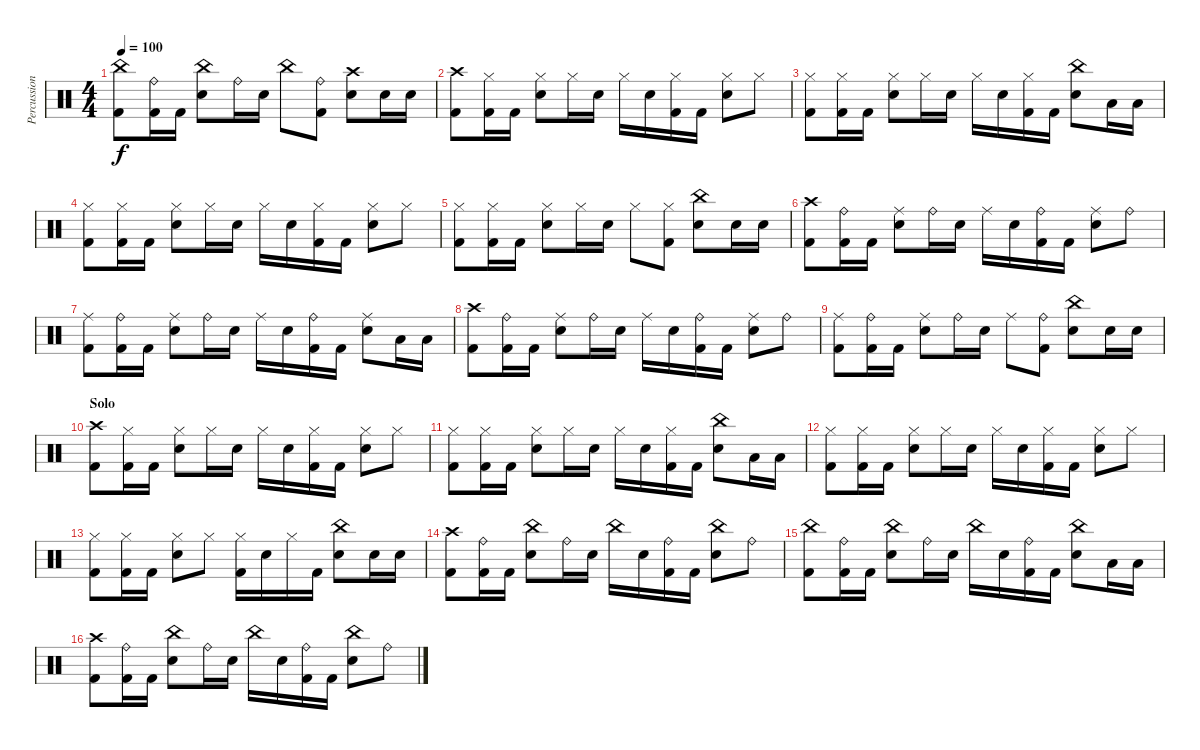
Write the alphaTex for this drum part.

\track ("Percussion" "Percussion") {instrument percussion}
\staff {score}
\articulation defaults
\ts (4 4)
\tempo 100
\clef neutral
\ks c
("China (hit)" "Kick (hit) 2").8{dy f} ("Ride (bell)" "Kick (hit) 2").16 "Kick (hit) 2".16 ("China (hit)" "Snare (hit) 2").8 "Ride (bell)".16 "Snare (hit) 2".16 "China (hit)".8 ("Ride (bell)" "Kick (hit) 2").8 ("Crash high (hit)" "Snare (hit) 2").8 "Snare (hit) 2".16 "Snare (hit) 2".16 |
("Crash high (hit)" "Kick (hit) 2").8 ("Hi-Hat (closed)" "Kick (hit) 2").16 "Kick (hit) 2".16 ("Hi-Hat (closed)" "Snare (hit) 2").8 "Hi-Hat (closed)".16 "Snare (hit) 2".16 "Hi-Hat (closed)".16 "Snare (hit) 2".16 ("Hi-Hat (closed)" "Kick (hit) 2").16 "Kick (hit) 2".16 ("Hi-Hat (closed)" "Snare (hit) 2").8 "Hi-Hat (closed)".8 |
("Hi-Hat (closed)" "Kick (hit) 2").8 ("Hi-Hat (closed)" "Kick (hit) 2").16 "Kick (hit) 2".16 ("Hi-Hat (closed)" "Snare (hit) 2").8 "Hi-Hat (closed)".16 "Snare (hit) 2".16 "Hi-Hat (closed)".16 "Snare (hit) 2".16 ("Hi-Hat (closed)" "Kick (hit) 2").16 "Kick (hit) 2".16 ("China (hit)" "Snare (hit) 2").8 "Low Floor Tom (hit)".16 "Low Floor Tom (hit)".16 |
("Hi-Hat (closed)" "Kick (hit) 2").8 ("Hi-Hat (closed)" "Kick (hit) 2").16 "Kick (hit) 2".16 ("Hi-Hat (closed)" "Snare (hit) 2").8 "Hi-Hat (closed)".16 "Snare (hit) 2".16 "Hi-Hat (closed)".16 "Snare (hit) 2".16 ("Hi-Hat (closed)" "Kick (hit) 2").16 "Kick (hit) 2".16 ("Hi-Hat (closed)" "Snare (hit) 2").8 "Hi-Hat (closed)".8 |
("Hi-Hat (closed)" "Kick (hit) 2").8 ("Hi-Hat (closed)" "Kick (hit) 2").16 "Kick (hit) 2".16 ("Hi-Hat (closed)" "Snare (hit) 2").8 "Hi-Hat (closed)".16 "Snare (hit) 2".16 "Hi-Hat (closed)".8 ("Hi-Hat (closed)" "Kick (hit) 2").8 ("China (hit)" "Snare (hit) 2").8 "Snare (hit) 2".16 "Snare (hit) 2".16 |
("Crash high (hit)" "Kick (hit) 2").8 ("Ride (bell)" "Kick (hit) 2").16 "Kick (hit) 2".16 ("Ride (middle)" "Snare (hit) 2").8 "Ride (bell)".16 "Snare (hit) 2".16 "Ride (middle)".16 "Snare (hit) 2".16 ("Ride (bell)" "Kick (hit) 2").16 "Kick (hit) 2".16 ("Ride (middle)" "Snare (hit) 2").8 "Ride (bell)".8 |
("Ride (middle)" "Kick (hit) 2").8 ("Ride (bell)" "Kick (hit) 2").16 "Kick (hit) 2".16 ("Ride (middle)" "Snare (hit) 2").8 "Ride (bell)".16 "Snare (hit) 2".16 "Ride (middle)".16 "Snare (hit) 2".16 ("Ride (bell)" "Kick (hit) 2").16 "Kick (hit) 2".16 ("Ride (middle)" "Snare (hit) 2").8 "Low Floor Tom (hit)".16 "Low Floor Tom (hit)".16 |
("Crash high (hit)" "Kick (hit) 2").8 ("Ride (bell)" "Kick (hit) 2").16 "Kick (hit) 2".16 ("Ride (middle)" "Snare (hit) 2").8 "Ride (bell)".16 "Snare (hit) 2".16 "Ride (middle)".16 "Snare (hit) 2".16 ("Ride (bell)" "Kick (hit) 2").16 "Kick (hit) 2".16 ("Ride (middle)" "Snare (hit) 2").8 "Ride (bell)".8 |
("Ride (middle)" "Kick (hit) 2").8 ("Ride (bell)" "Kick (hit) 2").16 "Kick (hit) 2".16 ("Ride (middle)" "Snare (hit) 2").8 "Ride (bell)".16 "Snare (hit) 2".16 "Ride (middle)".8 ("Ride (bell)" "Kick (hit) 2").8 ("China (hit)" "Snare (hit) 2").8 "Snare (hit) 2".16 "Snare (hit) 2".16 |
\section ("" "Solo")
("Crash high (hit)" "Kick (hit) 2").8 ("Hi-Hat (closed)" "Kick (hit) 2").16 "Kick (hit) 2".16 ("Hi-Hat (closed)" "Snare (hit) 2").8 "Hi-Hat (closed)".16 "Snare (hit) 2".16 "Hi-Hat (closed)".16 "Snare (hit) 2".16 ("Hi-Hat (closed)" "Kick (hit) 2").16 "Kick (hit) 2".16 ("Hi-Hat (closed)" "Snare (hit) 2").8 "Hi-Hat (closed)".8 |
("Hi-Hat (closed)" "Kick (hit) 2").8 ("Hi-Hat (closed)" "Kick (hit) 2").16 "Kick (hit) 2".16 ("Hi-Hat (closed)" "Snare (hit) 2").8 "Hi-Hat (closed)".16 "Snare (hit) 2".16 "Hi-Hat (closed)".16 "Snare (hit) 2".16 ("Hi-Hat (closed)" "Kick (hit) 2").16 "Kick (hit) 2".16 ("China (hit)" "Snare (hit) 2").8 "Low Floor Tom (hit)".16 "Low Floor Tom (hit)".16 |
("Hi-Hat (closed)" "Kick (hit) 2").8 ("Hi-Hat (closed)" "Kick (hit) 2").16 "Kick (hit) 2".16 ("Hi-Hat (closed)" "Snare (hit) 2").8 "Hi-Hat (closed)".16 "Snare (hit) 2".16 "Hi-Hat (closed)".16 "Snare (hit) 2".16 ("Hi-Hat (closed)" "Kick (hit) 2").16 "Kick (hit) 2".16 ("Hi-Hat (closed)" "Snare (hit) 2").8 "Hi-Hat (closed)".8 |
("Hi-Hat (closed)" "Kick (hit) 2").8 ("Hi-Hat (closed)" "Kick (hit) 2").16 "Kick (hit) 2".16 ("Hi-Hat (closed)" "Snare (hit) 2").8 "Hi-Hat (closed)".8 ("Hi-Hat (closed)" "Kick (hit) 2").16 "Snare (hit) 2".16 "Hi-Hat (closed)".16 "Kick (hit) 2".16 ("China (hit)" "Snare (hit) 2").8 "Snare (hit) 2".16 "Snare (hit) 2".16 |
("Crash high (hit)" "Kick (hit) 2").8 ("Ride (bell)" "Kick (hit) 2").16 "Kick (hit) 2".16 ("China (hit)" "Snare (hit) 2").8 "Ride (bell)".16 "Snare (hit) 2".16 "China (hit)".16 "Snare (hit) 2".16 ("Ride (bell)" "Kick (hit) 2").16 "Kick (hit) 2".16 ("China (hit)" "Snare (hit) 2").8 "Ride (bell)".8 |
("China (hit)" "Kick (hit) 2").8 ("Ride (bell)" "Kick (hit) 2").16 "Kick (hit) 2".16 ("China (hit)" "Snare (hit) 2").8 "Ride (bell)".16 "Snare (hit) 2".16 "China (hit)".16 "Snare (hit) 2".16 ("Ride (bell)" "Kick (hit) 2").16 "Kick (hit) 2".16 ("China (hit)" "Snare (hit) 2").8 "Low Floor Tom (hit)".16 "Low Floor Tom (hit)".16 |
("Crash high (hit)" "Kick (hit) 2").8 ("Ride (bell)" "Kick (hit) 2").16 "Kick (hit) 2".16 ("China (hit)" "Snare (hit) 2").8 "Ride (bell)".16 "Snare (hit) 2".16 "China (hit)".16 "Snare (hit) 2".16 ("Ride (bell)" "Kick (hit) 2").16 "Kick (hit) 2".16 ("China (hit)" "Snare (hit) 2").8 "Ride (bell)".8
